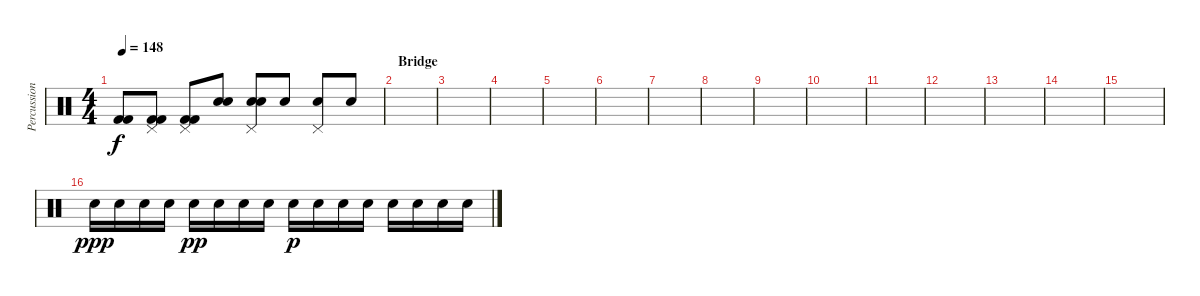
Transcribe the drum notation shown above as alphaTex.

\track ("Percussion" "Percussion") {instrument percussion}
\staff {score}
\articulation defaults
\ts (4 4)
\tempo 148
\clef neutral
\ks c
("Kick (hit) 2" "Kick (hit) 2").8{dy f} ("Pedal Hi-Hat (hit)" "Kick (hit) 2" "Kick (hit) 2").8 ("Pedal Hi-Hat (hit)" "Kick (hit) 2" "Kick (hit) 2").8 ("Electric Snare (hit)" "Electric Snare (hit)").8{bd 480} ("Hand Clap (hit)" "Pedal Hi-Hat (hit)" "Electric Snare (hit)").8 "Electric Snare (hit)".8 ("Pedal Hi-Hat (hit)" "Electric Snare (hit)").8 "Electric Snare (hit)".8 |
\section ("" "Bridge")
|
|
|
|
|
|
|
|
|
|
|
|
|
|
"Electric Snare (hit)".16{dy ppp} "Electric Snare (hit)".16 "Electric Snare (hit)".16 "Electric Snare (hit)".16 "Electric Snare (hit)".16{dy pp} "Electric Snare (hit)".16 "Electric Snare (hit)".16 "Electric Snare (hit)".16 "Electric Snare (hit)".16{dy p} "Electric Snare (hit)".16 "Electric Snare (hit)".16 "Electric Snare (hit)".16 "Electric Snare (hit)".16 "Electric Snare (hit)".16 "Electric Snare (hit)".16 "Electric Snare (hit)".16
